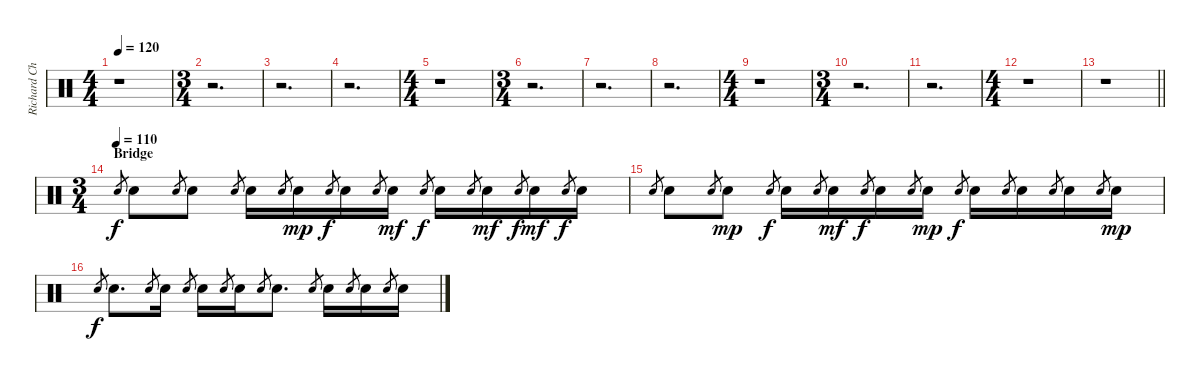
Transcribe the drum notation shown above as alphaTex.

\track ("Richard Christy" "Richard Ch") {instrument percussion}
\staff {score}
\articulation defaults
\ts (4 4)
\tempo 120
\clef neutral
\ks c
r.1{dy f} |
\ts (3 4)
r.2{d} |
r.2{d} |
r.2{d} |
\ts (4 4)
r.1 |
\ts (3 4)
r.2{d} |
r.2{d} |
r.2{d} |
\ts (4 4)
r.1 |
\ts (3 4)
r.2{d} |
r.2{d} |
\ts (4 4)
r.1 |
\barLineRight lightlight
r.1 |
\ts (3 4)
\section ("" "Bridge")
\tempo (110)
"Electric Snare (hit)".8{gr} "Electric Snare (hit)".8 "Electric Snare (hit)".8{gr} "Electric Snare (hit)".8 "Electric Snare (hit)".8{gr} "Electric Snare (hit)".16 "Electric Snare (hit)".8{gr} "Electric Snare (hit)".16{dy mp} "Electric Snare (hit)".8{gr dy f} "Electric Snare (hit)".16 "Electric Snare (hit)".8{gr} "Electric Snare (hit)".16{dy mf} "Electric Snare (hit)".8{gr dy f} "Electric Snare (hit)".16 "Electric Snare (hit)".8{gr} "Electric Snare (hit)".16{dy mf} "Electric Snare (hit)".8{gr dy f} "Electric Snare (hit)".16{dy mf} "Electric Snare (hit)".8{gr dy f} "Electric Snare (hit)".16 |
"Electric Snare (hit)".8{gr} "Electric Snare (hit)".8 "Electric Snare (hit)".8{gr} "Electric Snare (hit)".8{dy mp} "Electric Snare (hit)".8{gr dy f} "Electric Snare (hit)".16 "Electric Snare (hit)".8{gr} "Electric Snare (hit)".16{dy mf} "Electric Snare (hit)".8{gr dy f} "Electric Snare (hit)".16 "Electric Snare (hit)".8{gr} "Electric Snare (hit)".16{dy mp} "Electric Snare (hit)".8{gr dy f} "Electric Snare (hit)".16 "Electric Snare (hit)".8{gr} "Electric Snare (hit)".16 "Electric Snare (hit)".8{gr} "Electric Snare (hit)".16 "Electric Snare (hit)".8{gr} "Electric Snare (hit)".16{dy mp} |
"Electric Snare (hit)".8{gr dy f} "Electric Snare (hit)".8{d} "Electric Snare (hit)".8{gr} "Electric Snare (hit)".16 "Electric Snare (hit)".8{gr} "Electric Snare (hit)".16 "Electric Snare (hit)".8{gr} "Electric Snare (hit)".16 "Electric Snare (hit)".8{gr} "Electric Snare (hit)".8{d} "Electric Snare (hit)".8{gr} "Electric Snare (hit)".16 "Electric Snare (hit)".8{gr} "Electric Snare (hit)".16 "Electric Snare (hit)".8{gr} "Electric Snare (hit)".16
